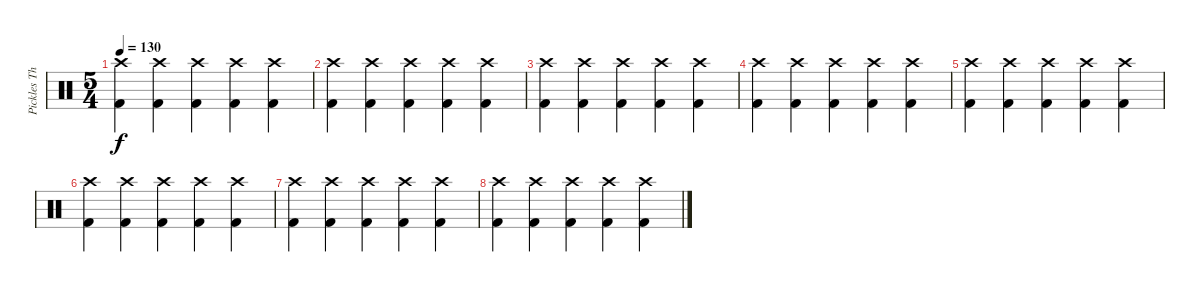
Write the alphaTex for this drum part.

\track ("Pickles The Drummer" "Pickles Th") {instrument percussion}
\staff {score}
\articulation defaults
\ts (5 4)
\tempo 130
\clef neutral
\ks c
("Crash high (hit)" "Kick (hit) 2").4{dy f} ("Crash high (hit)" "Kick (hit) 2").4 ("Crash high (hit)" "Kick (hit) 2").4 ("Crash high (hit)" "Kick (hit) 2").4 ("Crash high (hit)" "Kick (hit) 2").4 |
("Crash high (hit)" "Kick (hit) 2").4 ("Crash high (hit)" "Kick (hit) 2").4 ("Crash high (hit)" "Kick (hit) 2").4 ("Crash high (hit)" "Kick (hit) 2").4 ("Crash high (hit)" "Kick (hit) 2").4 |
("Crash high (hit)" "Kick (hit) 2").4 ("Crash high (hit)" "Kick (hit) 2").4 ("Crash high (hit)" "Kick (hit) 2").4 ("Crash high (hit)" "Kick (hit) 2").4 ("Crash high (hit)" "Kick (hit) 2").4 |
("Crash high (hit)" "Kick (hit) 2").4 ("Crash high (hit)" "Kick (hit) 2").4 ("Crash high (hit)" "Kick (hit) 2").4 ("Crash high (hit)" "Kick (hit) 2").4 ("Crash high (hit)" "Kick (hit) 2").4 |
("Crash high (hit)" "Kick (hit) 2").4 ("Crash high (hit)" "Kick (hit) 2").4 ("Crash high (hit)" "Kick (hit) 2").4 ("Crash high (hit)" "Kick (hit) 2").4 ("Crash high (hit)" "Kick (hit) 2").4 |
("Crash high (hit)" "Kick (hit) 2").4 ("Crash high (hit)" "Kick (hit) 2").4 ("Crash high (hit)" "Kick (hit) 2").4 ("Crash high (hit)" "Kick (hit) 2").4 ("Crash high (hit)" "Kick (hit) 2").4 |
("Crash high (hit)" "Kick (hit) 2").4 ("Crash high (hit)" "Kick (hit) 2").4 ("Crash high (hit)" "Kick (hit) 2").4 ("Crash high (hit)" "Kick (hit) 2").4 ("Crash high (hit)" "Kick (hit) 2").4 |
("Crash high (hit)" "Kick (hit) 2").4 ("Crash high (hit)" "Kick (hit) 2").4 ("Crash high (hit)" "Kick (hit) 2").4 ("Crash high (hit)" "Kick (hit) 2").4 ("Crash high (hit)" "Kick (hit) 2").4
